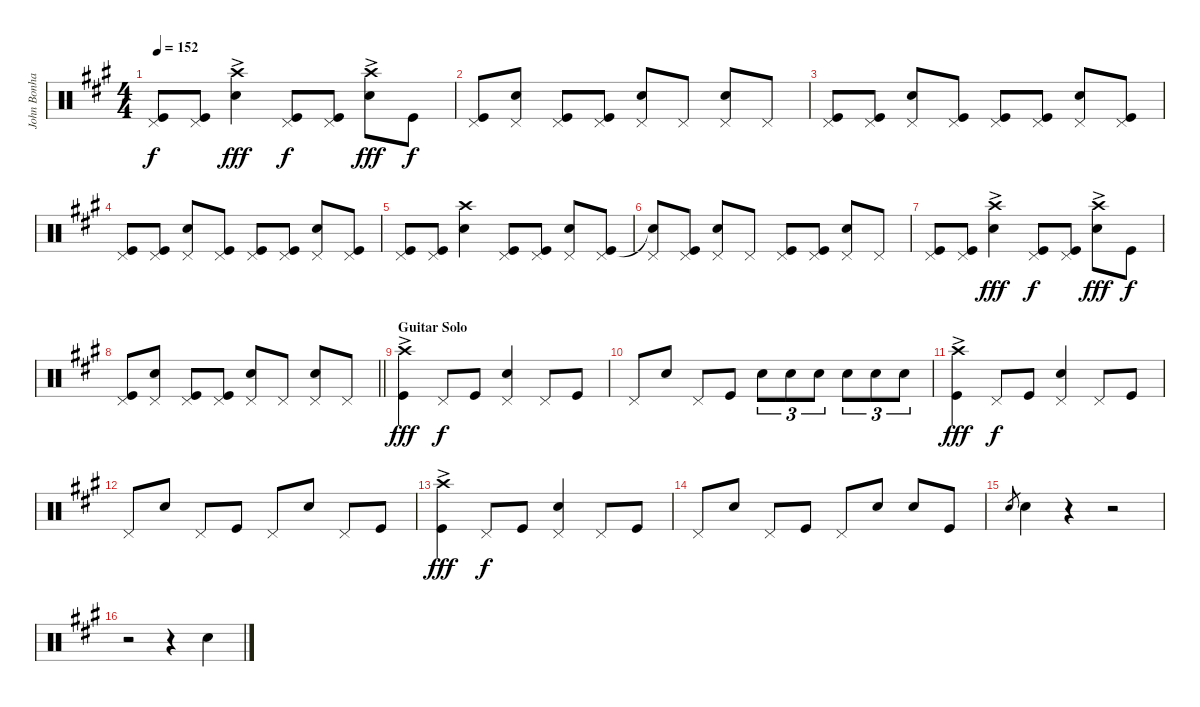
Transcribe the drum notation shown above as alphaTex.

\track ("John Bonham" "John Bonha") {instrument percussion}
\staff {score}
\articulation defaults
\ts (4 4)
\tempo 152
\clef neutral
\ks a
("Pedal Hi-Hat (hit)" "Kick (hit)").8{dy f} ("Pedal Hi-Hat (hit)" "Kick (hit)").8 ("Crash high (hit)"{ac} "Snare (hit) 2").4{dy fff} ("Pedal Hi-Hat (hit)" "Kick (hit)").8{dy f} ("Pedal Hi-Hat (hit)" "Kick (hit)").8 ("Crash high (hit)"{ac} "Snare (hit) 2").8{dy fff} "Kick (hit)".8{dy f} |
("Pedal Hi-Hat (hit)" "Kick (hit)").8 ("Pedal Hi-Hat (hit)" "Snare (hit) 2").8 ("Pedal Hi-Hat (hit)" "Kick (hit)").8 ("Pedal Hi-Hat (hit)" "Kick (hit)").8 ("Pedal Hi-Hat (hit)" "Snare (hit) 2").8 "Pedal Hi-Hat (hit)".8 ("Pedal Hi-Hat (hit)" "Snare (hit) 2").8 "Pedal Hi-Hat (hit)".8 |
("Pedal Hi-Hat (hit)" "Kick (hit)").8 ("Pedal Hi-Hat (hit)" "Kick (hit)").8 ("Pedal Hi-Hat (hit)" "Snare (hit) 2").8 ("Pedal Hi-Hat (hit)" "Kick (hit)").8 ("Pedal Hi-Hat (hit)" "Kick (hit)").8 ("Pedal Hi-Hat (hit)" "Kick (hit)").8 ("Pedal Hi-Hat (hit)" "Snare (hit) 2").8 ("Pedal Hi-Hat (hit)" "Kick (hit)").8 |
("Pedal Hi-Hat (hit)" "Kick (hit)").8 ("Pedal Hi-Hat (hit)" "Kick (hit)").8 ("Pedal Hi-Hat (hit)" "Snare (hit) 2").8 ("Pedal Hi-Hat (hit)" "Kick (hit)").8 ("Pedal Hi-Hat (hit)" "Kick (hit)").8 ("Pedal Hi-Hat (hit)" "Kick (hit)").8 ("Pedal Hi-Hat (hit)" "Snare (hit) 2").8 ("Pedal Hi-Hat (hit)" "Kick (hit)").8 |
("Pedal Hi-Hat (hit)" "Kick (hit)").8 ("Pedal Hi-Hat (hit)" "Kick (hit)").8 ("Crash high (hit)" "Snare (hit) 2").4 ("Pedal Hi-Hat (hit)" "Kick (hit)").8 ("Pedal Hi-Hat (hit)" "Kick (hit)").8 ("Pedal Hi-Hat (hit)" "Snare (hit) 2").8 ("Pedal Hi-Hat (hit)" "Kick (hit)").8 |
("Pedal Hi-Hat (hit)" "Snare (hit)"{t}).8 ("Pedal Hi-Hat (hit)" "Kick (hit)").8 ("Pedal Hi-Hat (hit)" "Snare (hit) 2").8 "Pedal Hi-Hat (hit)".8 ("Pedal Hi-Hat (hit)" "Kick (hit)").8 ("Pedal Hi-Hat (hit)" "Kick (hit)").8 ("Pedal Hi-Hat (hit)" "Snare (hit) 2").8 "Pedal Hi-Hat (hit)".8 |
("Pedal Hi-Hat (hit)" "Kick (hit)").8 ("Pedal Hi-Hat (hit)" "Kick (hit)").8 ("Crash high (hit)"{ac} "Snare (hit) 2").4{dy fff} ("Pedal Hi-Hat (hit)" "Kick (hit)").8{dy f} ("Pedal Hi-Hat (hit)" "Kick (hit)").8 ("Crash high (hit)"{ac} "Snare (hit) 2").8{dy fff} "Kick (hit)".8{dy f} |
\barLineRight lightlight
("Pedal Hi-Hat (hit)" "Kick (hit)").8 ("Pedal Hi-Hat (hit)" "Snare (hit) 2").8 ("Pedal Hi-Hat (hit)" "Kick (hit)").8 ("Pedal Hi-Hat (hit)" "Kick (hit)").8 ("Pedal Hi-Hat (hit)" "Snare (hit) 2").8 "Pedal Hi-Hat (hit)".8 ("Pedal Hi-Hat (hit)" "Snare (hit) 2").8 "Pedal Hi-Hat (hit)".8 |
\section ("" "Guitar Solo")
("Crash high (hit)"{ac} "Kick (hit)").4{dy fff} "Pedal Hi-Hat (hit)".8{dy f} "Kick (hit)".8 ("Pedal Hi-Hat (hit)" "Snare (hit) 2").4 "Pedal Hi-Hat (hit)".8 "Kick (hit)".8 |
"Pedal Hi-Hat (hit)".8 "Snare (hit) 2".8 "Pedal Hi-Hat (hit)".8 "Kick (hit)".8 "Snare (hit) 2".8{tu (3 2)} "Snare (hit) 2".8{tu (3 2)} "Snare (hit) 2".8{tu (3 2)} "Snare (hit) 2".8{tu (3 2)} "Snare (hit) 2".8{tu (3 2)} "Snare (hit) 2".8{tu (3 2)} |
("Crash high (hit)"{ac} "Kick (hit)").4{dy fff} "Pedal Hi-Hat (hit)".8{dy f} "Kick (hit)".8 ("Pedal Hi-Hat (hit)" "Snare (hit) 2").4 "Pedal Hi-Hat (hit)".8 "Kick (hit)".8 |
"Pedal Hi-Hat (hit)".8 "Snare (hit) 2".8 "Pedal Hi-Hat (hit)".8 "Kick (hit)".8 "Pedal Hi-Hat (hit)".8 "Snare (hit) 2".8 "Pedal Hi-Hat (hit)".8 "Kick (hit)".8 |
("Crash high (hit)"{ac} "Kick (hit)").4{dy fff} "Pedal Hi-Hat (hit)".8{dy f} "Kick (hit)".8 ("Pedal Hi-Hat (hit)" "Snare (hit) 2").4 "Pedal Hi-Hat (hit)".8 "Kick (hit)".8 |
"Pedal Hi-Hat (hit)".8 "Snare (hit) 2".8 "Pedal Hi-Hat (hit)".8 "Kick (hit)".8 "Pedal Hi-Hat (hit)".8 "Snare (hit) 2".8 "Snare (hit) 2".8 "Kick (hit)".8 |
"Snare (hit) 2".8{gr} "Snare (hit) 2".4 r.4 r.2 |
r.2 r.4 "Snare (hit) 2".4
